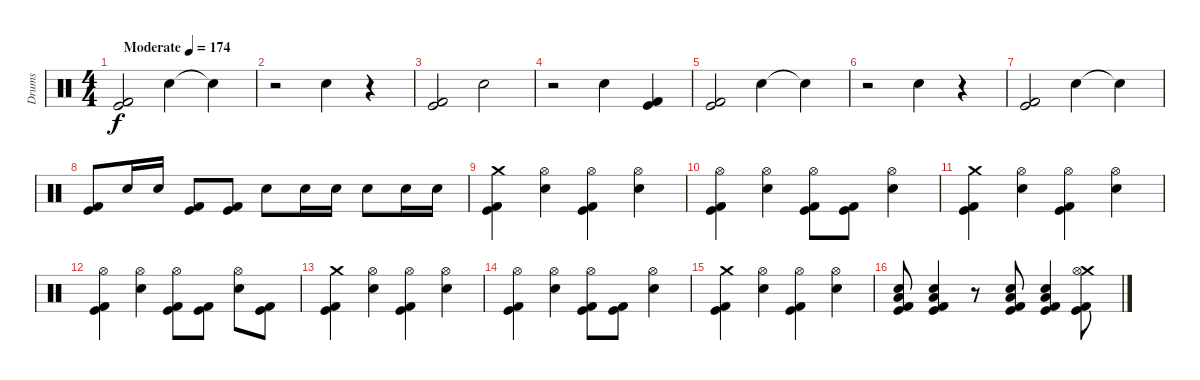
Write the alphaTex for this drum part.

\track ("Drums" "Drums") {instrument percussion}
\staff {score}
\articulation defaults
\ts (4 4)
\tempo (174 "Moderate")
\clef neutral
\ks c
("Kick (hit) 2" "Kick (hit)").2{dy f} "Electric Snare (hit)".4 "Snare (hit)"{t}.4 |
r.2 "Electric Snare (hit)".4 r.4 |
("Kick (hit) 2" "Kick (hit)").2 "Electric Snare (hit)".2 |
r.2 "Electric Snare (hit)".4 ("Kick (hit) 2" "Kick (hit)").4 |
("Kick (hit) 2" "Kick (hit)").2 "Electric Snare (hit)".4 "Snare (hit)"{t}.4 |
r.2 "Electric Snare (hit)".4 r.4 |
("Kick (hit) 2" "Kick (hit)").2 "Electric Snare (hit)".4 "Snare (hit)"{t}.4 |
("Kick (hit) 2" "Kick (hit)").8 "Electric Snare (hit)".16 "Electric Snare (hit)".16 ("Kick (hit) 2" "Kick (hit)").8 ("Kick (hit) 2" "Kick (hit)").8 "Electric Snare (hit)".8 "Electric Snare (hit)".16 "Electric Snare (hit)".16 "Electric Snare (hit)".8 "Electric Snare (hit)".16 "Electric Snare (hit)".16 |
("Crash medium (hit)" "Kick (hit) 2" "Kick (hit)").4 ("Hi-Hat (open)" "Electric Snare (hit)").4 ("Hi-Hat (open)" "Kick (hit) 2" "Kick (hit)").4 ("Hi-Hat (open)" "Electric Snare (hit)").4 |
("Hi-Hat (open)" "Kick (hit) 2" "Kick (hit)").4 ("Hi-Hat (open)" "Electric Snare (hit)").4 ("Hi-Hat (open)" "Kick (hit) 2" "Kick (hit)").8 ("Kick (hit) 2" "Kick (hit)").8 ("Hi-Hat (open)" "Electric Snare (hit)").4 |
("Crash medium (hit)" "Kick (hit) 2" "Kick (hit)").4 ("Hi-Hat (open)" "Electric Snare (hit)").4 ("Hi-Hat (open)" "Kick (hit) 2" "Kick (hit)").4 ("Hi-Hat (open)" "Electric Snare (hit)").4 |
("Hi-Hat (open)" "Kick (hit) 2" "Kick (hit)").4 ("Hi-Hat (open)" "Electric Snare (hit)").4 ("Hi-Hat (open)" "Kick (hit) 2" "Kick (hit)").8 ("Kick (hit) 2" "Kick (hit)").8 ("Hi-Hat (open)" "Electric Snare (hit)").8 ("Kick (hit) 2" "Kick (hit)").8 |
("Crash medium (hit)" "Kick (hit) 2" "Kick (hit)").4 ("Hi-Hat (open)" "Electric Snare (hit)").4 ("Hi-Hat (open)" "Kick (hit) 2" "Kick (hit)").4 ("Hi-Hat (open)" "Electric Snare (hit)").4 |
("Hi-Hat (open)" "Kick (hit) 2" "Kick (hit)").4 ("Hi-Hat (open)" "Electric Snare (hit)").4 ("Hi-Hat (open)" "Kick (hit) 2" "Kick (hit)").8 ("Kick (hit) 2" "Kick (hit)").8 ("Hi-Hat (open)" "Electric Snare (hit)").4 |
("Crash medium (hit)" "Kick (hit) 2" "Kick (hit)").4 ("Hi-Hat (open)" "Electric Snare (hit)").4 ("Hi-Hat (open)" "Kick (hit) 2" "Kick (hit)").4 ("Hi-Hat (open)" "Electric Snare (hit)").4 |
("Electric Snare (hit)" "Low Tom (hit)" "Kick (hit) 2" "Kick (hit)").8 ("Electric Snare (hit)" "Low Tom (hit)" "Kick (hit) 2" "Kick (hit)").4 r.8 ("Electric Snare (hit)" "Low Tom (hit)" "Kick (hit) 2" "Kick (hit)").8 ("Electric Snare (hit)" "Low Tom (hit)" "Kick (hit) 2" "Kick (hit)").4 ("Crash medium (hit)" "Hi-Hat (open)" "Kick (hit) 2" "Kick (hit)").8
